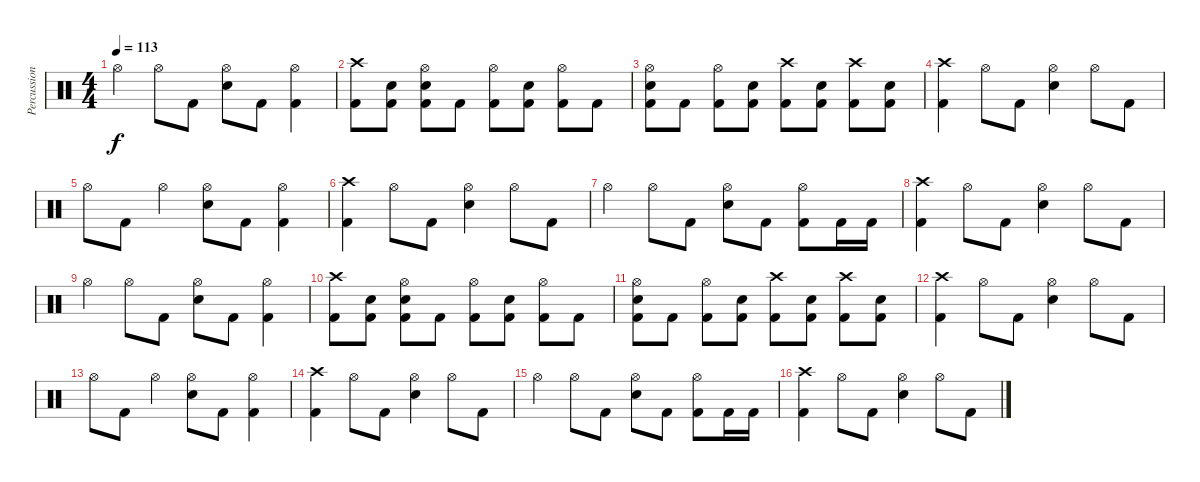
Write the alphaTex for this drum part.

\track ("Percussion" "Percussion") {instrument percussion}
\staff {score}
\articulation defaults
\ts (4 4)
\tempo 113
\clef neutral
\ks c "Hi-Hat (open)".4{dy f} "Hi-Hat (open)".8 "Kick (hit) 2".8
("Hi-Hat (open)" "Electric Snare (hit)").8 "Kick (hit) 2".8 ("Hi-Hat (open)" "Kick (hit) 2").4 |
("Crash high (hit)" "Kick (hit) 2").8 ("Electric Snare (hit)" "Kick (hit) 2").8 ("Hi-Hat (open)" "Electric Snare (hit)" "Kick (hit) 2").8 "Kick (hit) 2".8 ("Hi-Hat (open)" "Kick (hit) 2").8 ("Electric Snare (hit)" "Kick (hit) 2").8 ("Hi-Hat (open)" "Kick (hit) 2").8 "Kick (hit) 2".8 |
("Hi-Hat (open)" "Electric Snare (hit)" "Kick (hit) 2").8 "Kick (hit) 2".8 ("Hi-Hat (open)" "Kick (hit) 2").8 ("Electric Snare (hit)" "Kick (hit) 2").8 ("Crash high (hit)" "Kick (hit) 2").8 ("Electric Snare (hit)" "Kick (hit) 2").8 ("Crash high (hit)" "Kick (hit) 2").8 ("Electric Snare (hit)" "Kick (hit) 2").8 |
("Crash high (hit)" "Kick (hit) 2").4 "Hi-Hat (open)".8 "Kick (hit) 2".8 ("Hi-Hat (open)" "Electric Snare (hit)").4 "Hi-Hat (open)".8 "Kick (hit) 2".8 |
"Hi-Hat (open)".8 "Kick (hit) 2".8 "Hi-Hat (open)".4 ("Hi-Hat (open)" "Electric Snare (hit)").8 "Kick (hit) 2".8 ("Hi-Hat (open)" "Kick (hit) 2").4 |
("Crash high (hit)" "Kick (hit) 2").4 "Hi-Hat (open)".8 "Kick (hit) 2".8 ("Hi-Hat (open)" "Electric Snare (hit)").4 "Hi-Hat (open)".8 "Kick (hit) 2".8 |
"Hi-Hat (open)".4 "Hi-Hat (open)".8 "Kick (hit) 2".8 ("Hi-Hat (open)" "Electric Snare (hit)").8 "Kick (hit) 2".8 ("Hi-Hat (open)" "Kick (hit) 2").8 "Kick (hit) 2".16 "Kick (hit) 2".16 |
("Crash high (hit)" "Kick (hit) 2").4 "Hi-Hat (open)".8 "Kick (hit) 2".8 ("Hi-Hat (open)" "Electric Snare (hit)").4 "Hi-Hat (open)".8 "Kick (hit) 2".8 |
"Hi-Hat (open)".4 "Hi-Hat (open)".8 "Kick (hit) 2".8 ("Hi-Hat (open)" "Electric Snare (hit)").8 "Kick (hit) 2".8 ("Hi-Hat (open)" "Kick (hit) 2").4 |
("Crash high (hit)" "Kick (hit) 2").8 ("Electric Snare (hit)" "Kick (hit) 2").8 ("Hi-Hat (open)" "Electric Snare (hit)" "Kick (hit) 2").8 "Kick (hit) 2".8 ("Hi-Hat (open)" "Kick (hit) 2").8 ("Electric Snare (hit)" "Kick (hit) 2").8 ("Hi-Hat (open)" "Kick (hit) 2").8 "Kick (hit) 2".8 |
("Hi-Hat (open)" "Electric Snare (hit)" "Kick (hit) 2").8 "Kick (hit) 2".8 ("Hi-Hat (open)" "Kick (hit) 2").8 ("Electric Snare (hit)" "Kick (hit) 2").8 ("Crash high (hit)" "Kick (hit) 2").8 ("Electric Snare (hit)" "Kick (hit) 2").8 ("Crash high (hit)" "Kick (hit) 2").8 ("Electric Snare (hit)" "Kick (hit) 2").8 |
("Crash high (hit)" "Kick (hit) 2").4 "Hi-Hat (open)".8 "Kick (hit) 2".8 ("Hi-Hat (open)" "Electric Snare (hit)").4 "Hi-Hat (open)".8 "Kick (hit) 2".8 |
"Hi-Hat (open)".8 "Kick (hit) 2".8 "Hi-Hat (open)".4 ("Hi-Hat (open)" "Electric Snare (hit)").8 "Kick (hit) 2".8 ("Hi-Hat (open)" "Kick (hit) 2").4 |
("Crash high (hit)" "Kick (hit) 2").4 "Hi-Hat (open)".8 "Kick (hit) 2".8 ("Hi-Hat (open)" "Electric Snare (hit)").4 "Hi-Hat (open)".8 "Kick (hit) 2".8 |
"Hi-Hat (open)".4 "Hi-Hat (open)".8 "Kick (hit) 2".8 ("Hi-Hat (open)" "Electric Snare (hit)").8 "Kick (hit) 2".8 ("Hi-Hat (open)" "Kick (hit) 2").8 "Kick (hit) 2".16 "Kick (hit) 2".16 |
("Crash high (hit)" "Kick (hit) 2").4 "Hi-Hat (open)".8 "Kick (hit) 2".8 ("Hi-Hat (open)" "Electric Snare (hit)").4 "Hi-Hat (open)".8 "Kick (hit) 2".8
